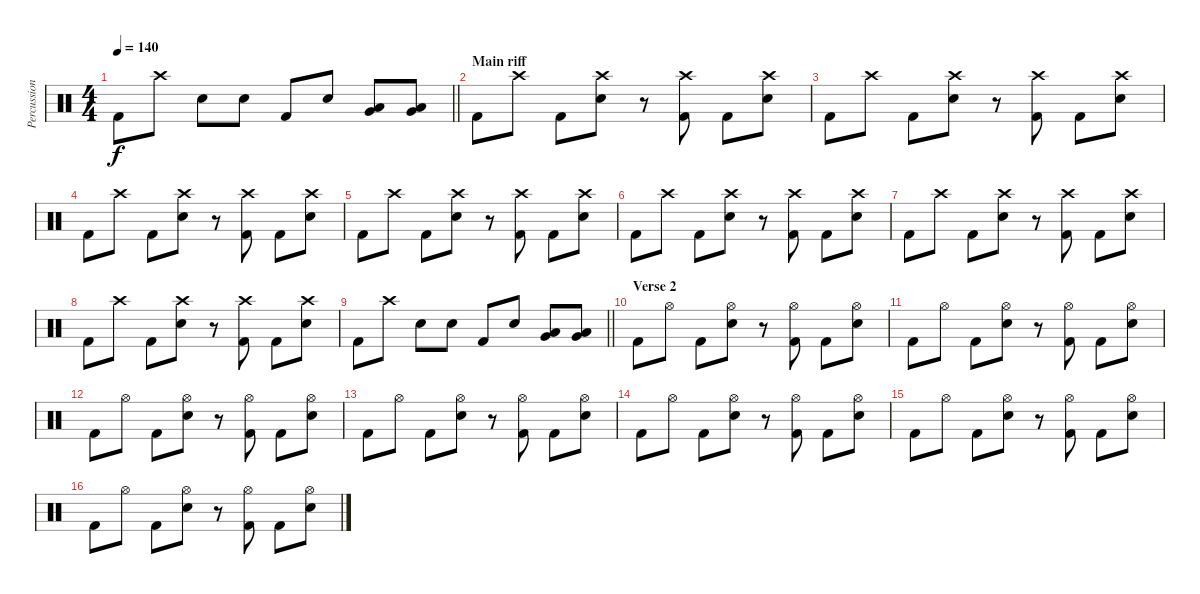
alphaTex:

\track ("Percussion" "Percussion") {instrument percussion}
\staff {score}
\articulation defaults
\ts (4 4)
\tempo 140
\clef neutral
\barLineRight lightlight
\ks c "Kick (hit) 2".8{dy f} "Crash high (hit)".8 "Electric Snare (hit)".8 "Electric Snare (hit)".8 "Kick (hit) 2".8 "Electric Snare (hit)".8
("Low Tom (hit)" "Very Low Tom (hit)").8 ("Low Tom (hit)" "Very Low Tom (hit)").8 |
\section ("" "Main riff")
"Kick (hit) 2".8 "Crash high (hit)".8 "Kick (hit) 2".8 ("Crash high (hit)" "Electric Snare (hit)").8 r.8 ("Crash high (hit)" "Kick (hit) 2").8 "Kick (hit) 2".8 ("Crash high (hit)" "Electric Snare (hit)").8 |
"Kick (hit) 2".8 "Crash high (hit)".8 "Kick (hit) 2".8 ("Crash high (hit)" "Electric Snare (hit)").8 r.8 ("Crash high (hit)" "Kick (hit) 2").8 "Kick (hit) 2".8 ("Crash high (hit)" "Electric Snare (hit)").8 |
"Kick (hit) 2".8 "Crash high (hit)".8 "Kick (hit) 2".8 ("Crash high (hit)" "Electric Snare (hit)").8 r.8 ("Crash high (hit)" "Kick (hit) 2").8 "Kick (hit) 2".8 ("Crash high (hit)" "Electric Snare (hit)").8 |
"Kick (hit) 2".8 "Crash high (hit)".8 "Kick (hit) 2".8 ("Crash high (hit)" "Electric Snare (hit)").8 r.8 ("Crash high (hit)" "Kick (hit) 2").8 "Kick (hit) 2".8 ("Crash high (hit)" "Electric Snare (hit)").8 |
"Kick (hit) 2".8 "Crash high (hit)".8 "Kick (hit) 2".8 ("Crash high (hit)" "Electric Snare (hit)").8 r.8 ("Crash high (hit)" "Kick (hit) 2").8 "Kick (hit) 2".8 ("Crash high (hit)" "Electric Snare (hit)").8 |
"Kick (hit) 2".8 "Crash high (hit)".8 "Kick (hit) 2".8 ("Crash high (hit)" "Electric Snare (hit)").8 r.8 ("Crash high (hit)" "Kick (hit) 2").8 "Kick (hit) 2".8 ("Crash high (hit)" "Electric Snare (hit)").8 |
"Kick (hit) 2".8 "Crash high (hit)".8 "Kick (hit) 2".8 ("Crash high (hit)" "Electric Snare (hit)").8 r.8 ("Crash high (hit)" "Kick (hit) 2").8 "Kick (hit) 2".8 ("Crash high (hit)" "Electric Snare (hit)").8 |
\barLineRight lightlight "Kick (hit) 2".8 "Crash high (hit)".8 "Electric Snare (hit)".8 "Electric Snare (hit)".8 "Kick (hit) 2".8 "Electric Snare (hit)".8
("Low Tom (hit)" "Very Low Tom (hit)").8 ("Low Tom (hit)" "Very Low Tom (hit)").8 |
\section ("" "Verse 2")
"Kick (hit) 2".8 "Hi-Hat (open)".8 "Kick (hit) 2".8 ("Hi-Hat (open)" "Electric Snare (hit)").8 r.8 ("Hi-Hat (open)" "Kick (hit) 2").8 "Kick (hit) 2".8 ("Hi-Hat (open)" "Electric Snare (hit)").8 |
"Kick (hit) 2".8 "Hi-Hat (open)".8 "Kick (hit) 2".8 ("Hi-Hat (open)" "Electric Snare (hit)").8 r.8 ("Hi-Hat (open)" "Kick (hit) 2").8 "Kick (hit) 2".8 ("Hi-Hat (open)" "Electric Snare (hit)").8 |
"Kick (hit) 2".8 "Hi-Hat (open)".8 "Kick (hit) 2".8 ("Hi-Hat (open)" "Electric Snare (hit)").8 r.8 ("Hi-Hat (open)" "Kick (hit) 2").8 "Kick (hit) 2".8 ("Hi-Hat (open)" "Electric Snare (hit)").8 |
"Kick (hit) 2".8 "Hi-Hat (open)".8 "Kick (hit) 2".8 ("Hi-Hat (open)" "Electric Snare (hit)").8 r.8 ("Hi-Hat (open)" "Kick (hit) 2").8 "Kick (hit) 2".8 ("Hi-Hat (open)" "Electric Snare (hit)").8 |
"Kick (hit) 2".8 "Hi-Hat (open)".8 "Kick (hit) 2".8 ("Hi-Hat (open)" "Electric Snare (hit)").8 r.8 ("Hi-Hat (open)" "Kick (hit) 2").8 "Kick (hit) 2".8 ("Hi-Hat (open)" "Electric Snare (hit)").8 |
"Kick (hit) 2".8 "Hi-Hat (open)".8 "Kick (hit) 2".8 ("Hi-Hat (open)" "Electric Snare (hit)").8 r.8 ("Hi-Hat (open)" "Kick (hit) 2").8 "Kick (hit) 2".8 ("Hi-Hat (open)" "Electric Snare (hit)").8 |
"Kick (hit) 2".8 "Hi-Hat (open)".8 "Kick (hit) 2".8 ("Hi-Hat (open)" "Electric Snare (hit)").8 r.8 ("Hi-Hat (open)" "Kick (hit) 2").8 "Kick (hit) 2".8 ("Hi-Hat (open)" "Electric Snare (hit)").8
